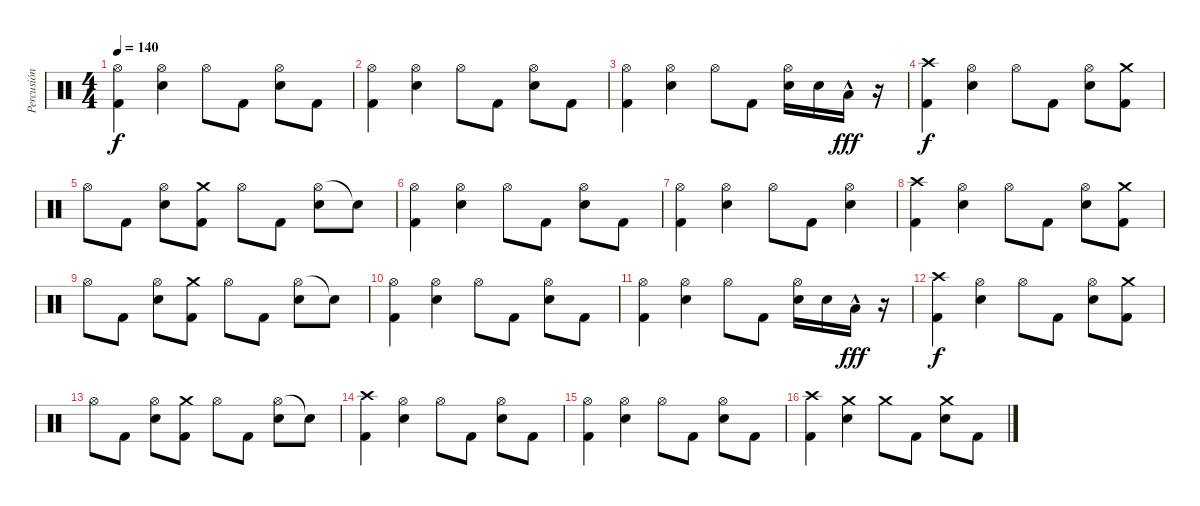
\track ("Percusión" "Percusión") {instrument percussion}
\staff {score}
\articulation defaults
\ts (4 4)
\tempo 140
\clef neutral
\ks c
("Hi-Hat (open)" "Kick (hit) 2").4{dy f} ("Hi-Hat (open)" "Snare (hit) 2").4 "Hi-Hat (open)".8 "Kick (hit) 2".8 ("Hi-Hat (open)" "Snare (hit) 2").8 "Kick (hit) 2".8 |
("Hi-Hat (open)" "Kick (hit) 2").4 ("Hi-Hat (open)" "Snare (hit) 2").4 "Hi-Hat (open)".8 "Kick (hit) 2".8 ("Hi-Hat (open)" "Snare (hit) 2").8 "Kick (hit) 2".8 |
("Hi-Hat (open)" "Kick (hit) 2").4 ("Hi-Hat (open)" "Snare (hit) 2").4 "Hi-Hat (open)".8 "Kick (hit) 2".8 ("Hi-Hat (open)" "Snare (hit) 2").16 "Snare (hit) 2".16 "Low Tom (hit)"{hac}.16{dy fff} r.16 |
("Crash high (hit)" "Kick (hit) 2").4{dy f} ("Hi-Hat (open)" "Snare (hit) 2").4 "Hi-Hat (open)".8 "Kick (hit) 2".8 ("Hi-Hat (open)" "Snare (hit) 2").8 ("Crash medium (hit)" "Kick (hit) 2").8 |
"Hi-Hat (open)".8 "Kick (hit) 2".8 ("Hi-Hat (open)" "Snare (hit) 2").8 ("Crash medium (hit)" "Kick (hit) 2").8 "Hi-Hat (open)".8 "Kick (hit) 2".8 ("Hi-Hat (open)" "Snare (hit) 2").8 "Snare (hit)"{t}.8 |
("Hi-Hat (open)" "Kick (hit) 2").4 ("Hi-Hat (open)" "Snare (hit) 2").4 "Hi-Hat (open)".8 "Kick (hit) 2".8 ("Hi-Hat (open)" "Snare (hit) 2").8 "Kick (hit) 2".8 |
("Hi-Hat (open)" "Kick (hit) 2").4 ("Hi-Hat (open)" "Snare (hit) 2").4 "Hi-Hat (open)".8 "Kick (hit) 2".8 ("Hi-Hat (open)" "Snare (hit) 2").4 |
("Crash high (hit)" "Kick (hit) 2").4 ("Hi-Hat (open)" "Snare (hit) 2").4 "Hi-Hat (open)".8 "Kick (hit) 2".8 ("Hi-Hat (open)" "Snare (hit) 2").8 ("Crash medium (hit)" "Kick (hit) 2").8 |
"Hi-Hat (open)".8 "Kick (hit) 2".8 ("Hi-Hat (open)" "Snare (hit) 2").8 ("Crash medium (hit)" "Kick (hit) 2").8 "Hi-Hat (open)".8 "Kick (hit) 2".8 ("Hi-Hat (open)" "Snare (hit) 2").8 "Snare (hit)"{t}.8 |
("Hi-Hat (open)" "Kick (hit) 2").4 ("Hi-Hat (open)" "Snare (hit) 2").4 "Hi-Hat (open)".8 "Kick (hit) 2".8 ("Hi-Hat (open)" "Snare (hit) 2").8 "Kick (hit) 2".8 |
("Hi-Hat (open)" "Kick (hit) 2").4 ("Hi-Hat (open)" "Snare (hit) 2").4 "Hi-Hat (open)".8 "Kick (hit) 2".8 ("Hi-Hat (open)" "Snare (hit) 2").16 "Snare (hit) 2".16 "Low Tom (hit)"{hac}.16{dy fff} r.16 |
("Crash high (hit)" "Kick (hit) 2").4{dy f} ("Hi-Hat (open)" "Snare (hit) 2").4 "Hi-Hat (open)".8 "Kick (hit) 2".8 ("Hi-Hat (open)" "Snare (hit) 2").8 ("Crash medium (hit)" "Kick (hit) 2").8 |
"Hi-Hat (open)".8 "Kick (hit) 2".8 ("Hi-Hat (open)" "Snare (hit) 2").8 ("Crash medium (hit)" "Kick (hit) 2").8 "Hi-Hat (open)".8 "Kick (hit) 2".8 ("Hi-Hat (open)" "Snare (hit) 2").8 "Snare (hit)"{t}.8 |
("Crash high (hit)" "Kick (hit) 2").4 ("Hi-Hat (open)" "Snare (hit) 2").4 "Hi-Hat (open)".8 "Kick (hit) 2".8 ("Hi-Hat (open)" "Snare (hit) 2").8 "Kick (hit) 2".8 |
("Hi-Hat (open)" "Kick (hit) 2").4 ("Hi-Hat (open)" "Snare (hit) 2").4 "Hi-Hat (open)".8 "Kick (hit) 2".8 ("Hi-Hat (open)" "Snare (hit) 2").8 "Kick (hit) 2".8 |
("Crash high (hit)" "Kick (hit) 2").4 ("Crash medium (hit)" "Snare (hit) 2").4 "Crash medium (hit)".8 "Kick (hit) 2".8 ("Crash medium (hit)" "Snare (hit) 2").8 "Kick (hit) 2".8
